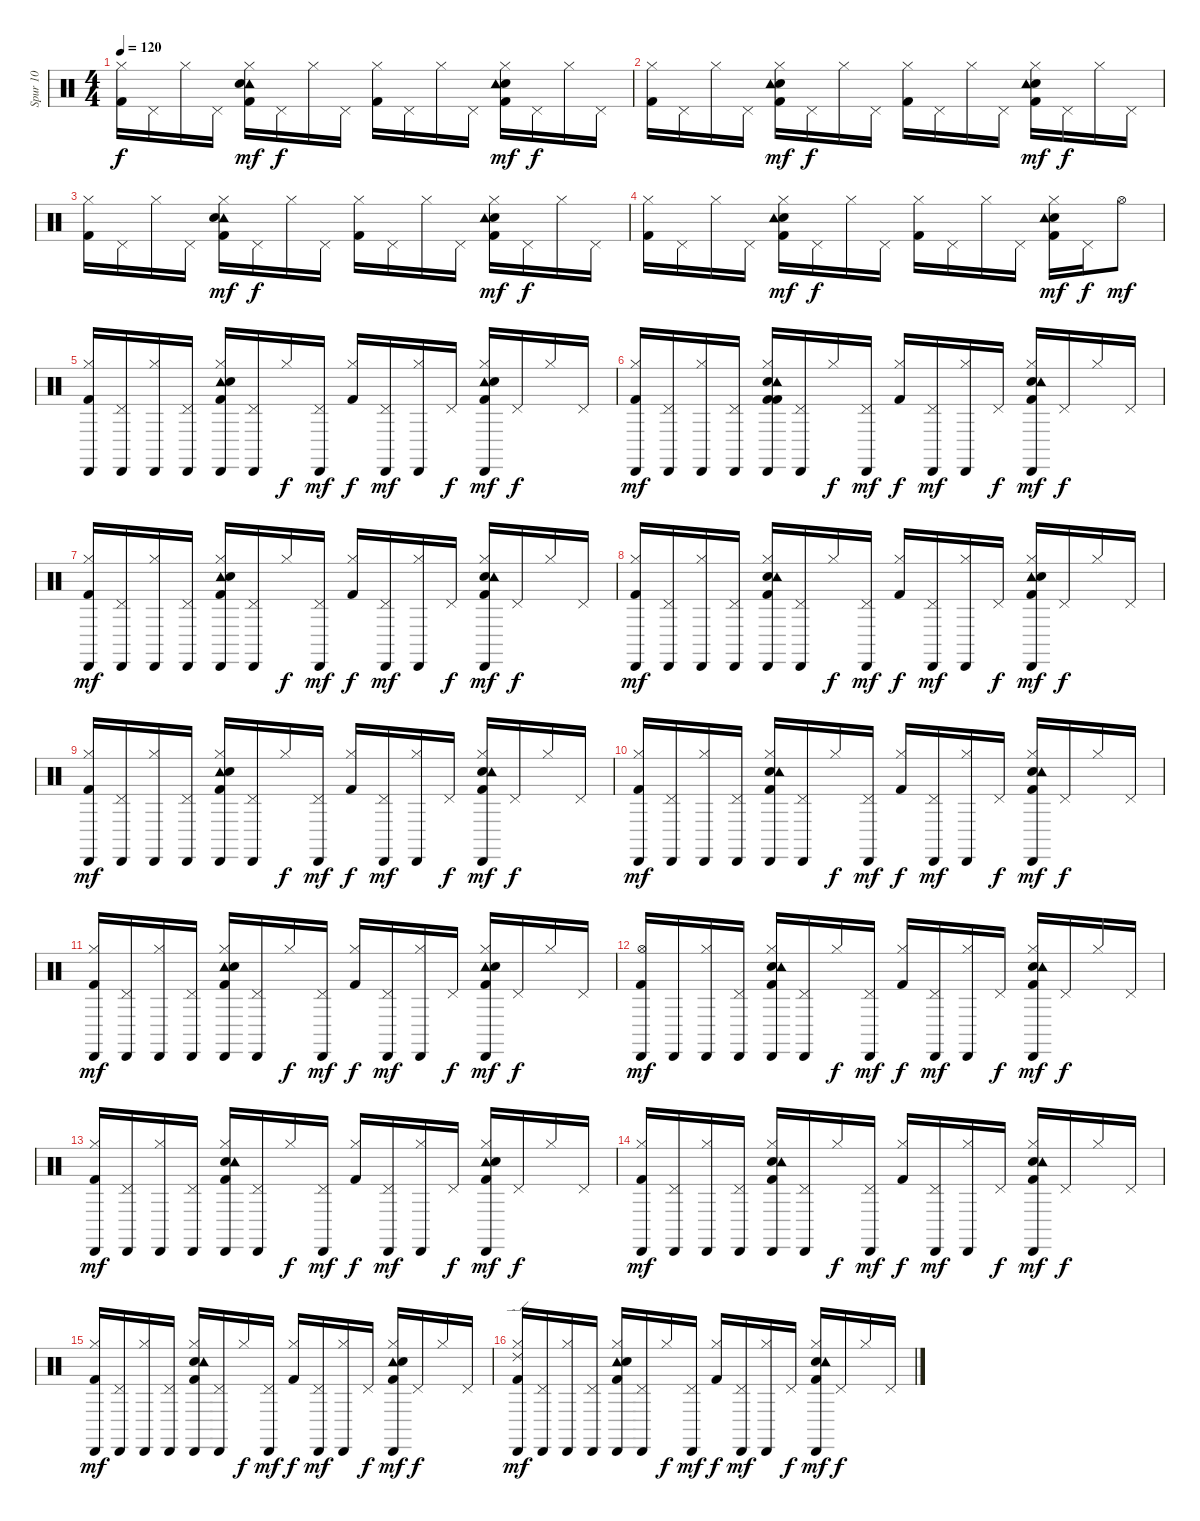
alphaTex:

\track ("Spur 10" "Spur 10") {instrument percussion}
\staff {score}
\articulation defaults
\ts (4 4)
\tempo 120
\clef neutral
\ks c
("Kick (hit) 2" "Hi-Hat (closed)").16{dy f} "Pedal Hi-Hat (hit)".16 "Hi-Hat (closed)".16 "Pedal Hi-Hat (hit)".16 ("Tambourine (hit)" "Snare (hit) 2" "Kick (hit) 2" "Hi-Hat (closed)").16{dy mf} "Pedal Hi-Hat (hit)".16{dy f} "Hi-Hat (closed)".16 "Pedal Hi-Hat (hit)".16 ("Kick (hit) 2" "Hi-Hat (closed)").16 "Pedal Hi-Hat (hit)".16 "Hi-Hat (closed)".16 "Pedal Hi-Hat (hit)".16 ("Kick (hit) 2" "Snare (hit) 2" "Tambourine (hit)" "Hi-Hat (closed)").16{dy mf} "Pedal Hi-Hat (hit)".16{dy f} "Hi-Hat (closed)".16 "Pedal Hi-Hat (hit)".16 |
("Kick (hit) 2" "Hi-Hat (closed)").16 "Pedal Hi-Hat (hit)".16 "Hi-Hat (closed)".16 "Pedal Hi-Hat (hit)".16 ("Snare (hit) 2" "Kick (hit) 2" "Tambourine (hit)" "Hi-Hat (closed)").16{dy mf} "Pedal Hi-Hat (hit)".16{dy f} "Hi-Hat (closed)".16 "Pedal Hi-Hat (hit)".16 ("Kick (hit) 2" "Hi-Hat (closed)").16 "Pedal Hi-Hat (hit)".16 "Hi-Hat (closed)".16 "Pedal Hi-Hat (hit)".16 ("Kick (hit) 2" "Snare (hit) 2" "Tambourine (hit)" "Hi-Hat (closed)").16{dy mf} "Pedal Hi-Hat (hit)".16{dy f} "Hi-Hat (closed)".16 "Pedal Hi-Hat (hit)".16 |
("Kick (hit) 2" "Hi-Hat (closed)").16 "Pedal Hi-Hat (hit)".16 "Hi-Hat (closed)".16 "Pedal Hi-Hat (hit)".16 ("Tambourine (hit)" "Snare (hit) 2" "Kick (hit) 2" "Hi-Hat (closed)").16{dy mf} "Pedal Hi-Hat (hit)".16{dy f} "Hi-Hat (closed)".16 "Pedal Hi-Hat (hit)".16 ("Kick (hit) 2" "Hi-Hat (closed)").16 "Pedal Hi-Hat (hit)".16 "Hi-Hat (closed)".16 "Pedal Hi-Hat (hit)".16 ("Snare (hit) 2" "Tambourine (hit)" "Kick (hit) 2" "Hi-Hat (closed)").16{dy mf} "Pedal Hi-Hat (hit)".16{dy f} "Hi-Hat (closed)".16 "Pedal Hi-Hat (hit)".16 |
("Kick (hit) 2" "Hi-Hat (closed)").16 "Pedal Hi-Hat (hit)".16 "Hi-Hat (closed)".16 "Pedal Hi-Hat (hit)".16 ("Snare (hit) 2" "Kick (hit) 2" "Tambourine (hit)" "Hi-Hat (closed)").16{dy mf} "Pedal Hi-Hat (hit)".16{dy f} "Hi-Hat (closed)".16 "Pedal Hi-Hat (hit)".16 ("Kick (hit) 2" "Hi-Hat (closed)").16 "Pedal Hi-Hat (hit)".16 "Hi-Hat (closed)".16 "Pedal Hi-Hat (hit)".16 ("Snare (hit) 2" "Tambourine (hit)" "Kick (hit) 2" "Hi-Hat (closed)").16{dy mf} "Pedal Hi-Hat (hit)".16{dy f} "Hi-Hat (open)".8{dy mf} |
("Kick (hit) 2" "Hi-Hat (closed)" "Cabasa (hit)").16 ("Pedal Hi-Hat (hit)" "Cabasa (hit)").16 ("Hi-Hat (closed)" "Cabasa (hit)").16 ("Pedal Hi-Hat (hit)" "Cabasa (hit)").16 ("Tambourine (hit)" "Kick (hit) 2" "Snare (hit) 2" "Hi-Hat (closed)" "Cabasa (hit)").16 ("Pedal Hi-Hat (hit)" "Cabasa (hit)").16 "Hi-Hat (closed)".16{dy f} ("Pedal Hi-Hat (hit)" "Cabasa (hit)").16{dy mf} ("Kick (hit) 2" "Hi-Hat (closed)").16{dy f} ("Pedal Hi-Hat (hit)" "Cabasa (hit)").16{dy mf} ("Hi-Hat (closed)" "Cabasa (hit)").16 "Pedal Hi-Hat (hit)".16{dy f} ("Kick (hit) 2" "Tambourine (hit)" "Snare (hit) 2" "Hi-Hat (closed)" "Cabasa (hit)").16{dy mf} "Pedal Hi-Hat (hit)".16{dy f} "Hi-Hat (closed)".16 "Pedal Hi-Hat (hit)".16 |
("Kick (hit) 2" "Hi-Hat (closed)" "Cabasa (hit)").16{dy mf} ("Pedal Hi-Hat (hit)" "Cabasa (hit)").16 ("Hi-Hat (closed)" "Cabasa (hit)").16 ("Pedal Hi-Hat (hit)" "Cabasa (hit)").16 ("Kick (hit) 2" "Snare (hit) 2" "Tambourine (hit)" "Kick (hit) 2" "Hi-Hat (closed)" "Cabasa (hit)").16 ("Pedal Hi-Hat (hit)" "Cabasa (hit)").16 "Hi-Hat (closed)".16{dy f} ("Pedal Hi-Hat (hit)" "Cabasa (hit)").16{dy mf} ("Kick (hit) 2" "Hi-Hat (closed)").16{dy f} ("Pedal Hi-Hat (hit)" "Cabasa (hit)").16{dy mf} ("Hi-Hat (closed)" "Cabasa (hit)").16 "Pedal Hi-Hat (hit)".16{dy f} ("Kick (hit) 2" "Snare (hit) 2" "Tambourine (hit)" "Hi-Hat (closed)" "Cabasa (hit)").16{dy mf} "Pedal Hi-Hat (hit)".16{dy f} "Hi-Hat (closed)".16 "Pedal Hi-Hat (hit)".16 |
("Kick (hit) 2" "Hi-Hat (closed)" "Cabasa (hit)").16{dy mf} ("Pedal Hi-Hat (hit)" "Cabasa (hit)").16 ("Hi-Hat (closed)" "Cabasa (hit)").16 ("Pedal Hi-Hat (hit)" "Cabasa (hit)").16 ("Tambourine (hit)" "Kick (hit) 2" "Snare (hit) 2" "Hi-Hat (closed)" "Cabasa (hit)").16 ("Pedal Hi-Hat (hit)" "Cabasa (hit)").16 "Hi-Hat (closed)".16{dy f} ("Pedal Hi-Hat (hit)" "Cabasa (hit)").16{dy mf} ("Kick (hit) 2" "Hi-Hat (closed)").16{dy f} ("Pedal Hi-Hat (hit)" "Cabasa (hit)").16{dy mf} ("Hi-Hat (closed)" "Cabasa (hit)").16 "Pedal Hi-Hat (hit)".16{dy f} ("Snare (hit) 2" "Kick (hit) 2" "Tambourine (hit)" "Hi-Hat (closed)" "Cabasa (hit)").16{dy mf} "Pedal Hi-Hat (hit)".16{dy f} "Hi-Hat (closed)".16 "Pedal Hi-Hat (hit)".16 |
("Kick (hit) 2" "Hi-Hat (closed)" "Cabasa (hit)").16{dy mf} ("Pedal Hi-Hat (hit)" "Cabasa (hit)").16 ("Hi-Hat (closed)" "Cabasa (hit)").16 ("Pedal Hi-Hat (hit)" "Cabasa (hit)").16 ("Snare (hit) 2" "Tambourine (hit)" "Kick (hit) 2" "Hi-Hat (closed)" "Cabasa (hit)").16 ("Pedal Hi-Hat (hit)" "Cabasa (hit)").16 "Hi-Hat (closed)".16{dy f} ("Pedal Hi-Hat (hit)" "Cabasa (hit)").16{dy mf} ("Kick (hit) 2" "Hi-Hat (closed)").16{dy f} ("Pedal Hi-Hat (hit)" "Cabasa (hit)").16{dy mf} ("Hi-Hat (closed)" "Cabasa (hit)").16 "Pedal Hi-Hat (hit)".16{dy f} ("Tambourine (hit)" "Snare (hit) 2" "Kick (hit) 2" "Hi-Hat (closed)" "Cabasa (hit)").16{dy mf} "Pedal Hi-Hat (hit)".16{dy f} "Hi-Hat (closed)".16 "Pedal Hi-Hat (hit)".16 |
("Kick (hit) 2" "Hi-Hat (closed)" "Cabasa (hit)").16{dy mf} ("Pedal Hi-Hat (hit)" "Cabasa (hit)").16 ("Hi-Hat (closed)" "Cabasa (hit)").16 ("Pedal Hi-Hat (hit)" "Cabasa (hit)").16 ("Tambourine (hit)" "Snare (hit) 2" "Kick (hit) 2" "Hi-Hat (closed)" "Cabasa (hit)").16 ("Pedal Hi-Hat (hit)" "Cabasa (hit)").16 "Hi-Hat (closed)".16{dy f} ("Pedal Hi-Hat (hit)" "Cabasa (hit)").16{dy mf} ("Kick (hit) 2" "Hi-Hat (closed)").16{dy f} ("Pedal Hi-Hat (hit)" "Cabasa (hit)").16{dy mf} ("Hi-Hat (closed)" "Cabasa (hit)").16 "Pedal Hi-Hat (hit)".16{dy f} ("Snare (hit) 2" "Kick (hit) 2" "Tambourine (hit)" "Hi-Hat (closed)" "Cabasa (hit)").16{dy mf} "Pedal Hi-Hat (hit)".16{dy f} "Hi-Hat (closed)".16 "Pedal Hi-Hat (hit)".16 |
("Kick (hit) 2" "Hi-Hat (closed)" "Cabasa (hit)").16{dy mf} ("Pedal Hi-Hat (hit)" "Cabasa (hit)").16 ("Hi-Hat (closed)" "Cabasa (hit)").16 ("Pedal Hi-Hat (hit)" "Cabasa (hit)").16 ("Snare (hit) 2" "Tambourine (hit)" "Kick (hit) 2" "Hi-Hat (closed)" "Cabasa (hit)").16 ("Pedal Hi-Hat (hit)" "Cabasa (hit)").16 "Hi-Hat (closed)".16{dy f} ("Pedal Hi-Hat (hit)" "Cabasa (hit)").16{dy mf} ("Kick (hit) 2" "Hi-Hat (closed)").16{dy f} ("Pedal Hi-Hat (hit)" "Cabasa (hit)").16{dy mf} ("Hi-Hat (closed)" "Cabasa (hit)").16 "Pedal Hi-Hat (hit)".16{dy f} ("Snare (hit) 2" "Kick (hit) 2" "Tambourine (hit)" "Hi-Hat (closed)" "Cabasa (hit)").16{dy mf} "Pedal Hi-Hat (hit)".16{dy f} "Hi-Hat (closed)".16 "Pedal Hi-Hat (hit)".16 |
("Kick (hit) 2" "Hi-Hat (closed)" "Cabasa (hit)").16{dy mf} ("Pedal Hi-Hat (hit)" "Cabasa (hit)").16 ("Hi-Hat (closed)" "Cabasa (hit)").16 ("Pedal Hi-Hat (hit)" "Cabasa (hit)").16 ("Kick (hit) 2" "Tambourine (hit)" "Snare (hit) 2" "Hi-Hat (closed)" "Cabasa (hit)").16 ("Pedal Hi-Hat (hit)" "Cabasa (hit)").16 "Hi-Hat (closed)".16{dy f} ("Pedal Hi-Hat (hit)" "Cabasa (hit)").16{dy mf} ("Kick (hit) 2" "Hi-Hat (closed)").16{dy f} ("Pedal Hi-Hat (hit)" "Cabasa (hit)").16{dy mf} ("Hi-Hat (closed)" "Cabasa (hit)").16 "Pedal Hi-Hat (hit)".16{dy f} ("Tambourine (hit)" "Snare (hit) 2" "Kick (hit) 2" "Hi-Hat (closed)" "Cabasa (hit)").16{dy mf} "Pedal Hi-Hat (hit)".16{dy f} "Hi-Hat (closed)".16 "Pedal Hi-Hat (hit)".16 |
("Kick (hit) 2" "Hi-Hat (open)" "Cabasa (hit)").16{dy mf} "Cabasa (hit)".16 ("Hi-Hat (closed)" "Cabasa (hit)").16 ("Pedal Hi-Hat (hit)" "Cabasa (hit)").16 ("Snare (hit) 2" "Tambourine (hit)" "Kick (hit) 2" "Hi-Hat (closed)" "Cabasa (hit)").16 ("Pedal Hi-Hat (hit)" "Cabasa (hit)").16 "Hi-Hat (closed)".16{dy f} ("Pedal Hi-Hat (hit)" "Cabasa (hit)").16{dy mf} ("Kick (hit) 2" "Hi-Hat (closed)").16{dy f} ("Pedal Hi-Hat (hit)" "Cabasa (hit)").16{dy mf} ("Hi-Hat (closed)" "Cabasa (hit)").16 "Pedal Hi-Hat (hit)".16{dy f} ("Snare (hit) 2" "Kick (hit) 2" "Tambourine (hit)" "Hi-Hat (closed)" "Cabasa (hit)").16{dy mf} "Pedal Hi-Hat (hit)".16{dy f} "Hi-Hat (closed)".16 "Pedal Hi-Hat (hit)".16 |
("Kick (hit) 2" "Hi-Hat (closed)" "Cabasa (hit)").16{dy mf} ("Pedal Hi-Hat (hit)" "Cabasa (hit)").16 ("Hi-Hat (closed)" "Cabasa (hit)").16 ("Pedal Hi-Hat (hit)" "Cabasa (hit)").16 ("Snare (hit) 2" "Tambourine (hit)" "Kick (hit) 2" "Hi-Hat (closed)" "Cabasa (hit)").16 ("Pedal Hi-Hat (hit)" "Cabasa (hit)").16 "Hi-Hat (closed)".16{dy f} ("Pedal Hi-Hat (hit)" "Cabasa (hit)").16{dy mf} ("Kick (hit) 2" "Hi-Hat (closed)").16{dy f} ("Pedal Hi-Hat (hit)" "Cabasa (hit)").16{dy mf} ("Hi-Hat (closed)" "Cabasa (hit)").16 "Pedal Hi-Hat (hit)".16{dy f} ("Tambourine (hit)" "Snare (hit) 2" "Kick (hit) 2" "Hi-Hat (closed)" "Cabasa (hit)").16{dy mf} "Pedal Hi-Hat (hit)".16{dy f} "Hi-Hat (closed)".16 "Pedal Hi-Hat (hit)".16 |
("Kick (hit) 2" "Hi-Hat (closed)" "Cabasa (hit)").16{dy mf} ("Pedal Hi-Hat (hit)" "Cabasa (hit)").16 ("Hi-Hat (closed)" "Cabasa (hit)").16 ("Pedal Hi-Hat (hit)" "Cabasa (hit)").16 ("Kick (hit) 2" "Snare (hit) 2" "Tambourine (hit)" "Hi-Hat (closed)" "Cabasa (hit)").16 ("Pedal Hi-Hat (hit)" "Cabasa (hit)").16 "Hi-Hat (closed)".16{dy f} ("Pedal Hi-Hat (hit)" "Cabasa (hit)").16{dy mf} ("Kick (hit) 2" "Hi-Hat (closed)").16{dy f} ("Pedal Hi-Hat (hit)" "Cabasa (hit)").16{dy mf} ("Hi-Hat (closed)" "Cabasa (hit)").16 "Pedal Hi-Hat (hit)".16{dy f} ("Snare (hit) 2" "Kick (hit) 2" "Tambourine (hit)" "Hi-Hat (closed)" "Cabasa (hit)").16{dy mf} "Pedal Hi-Hat (hit)".16{dy f} "Hi-Hat (closed)".16 "Pedal Hi-Hat (hit)".16 |
("Kick (hit) 2" "Hi-Hat (closed)" "Cabasa (hit)").16{dy mf} ("Pedal Hi-Hat (hit)" "Cabasa (hit)").16 ("Hi-Hat (closed)" "Cabasa (hit)").16 ("Pedal Hi-Hat (hit)" "Cabasa (hit)").16 ("Kick (hit) 2" "Snare (hit) 2" "Tambourine (hit)" "Hi-Hat (closed)" "Cabasa (hit)").16 ("Pedal Hi-Hat (hit)" "Cabasa (hit)").16 "Hi-Hat (closed)".16{dy f} ("Pedal Hi-Hat (hit)" "Cabasa (hit)").16{dy mf} ("Kick (hit) 2" "Hi-Hat (closed)").16{dy f} ("Pedal Hi-Hat (hit)" "Cabasa (hit)").16{dy mf} ("Hi-Hat (closed)" "Cabasa (hit)").16 "Pedal Hi-Hat (hit)".16{dy f} ("Tambourine (hit)" "Snare (hit) 2" "Kick (hit) 2" "Hi-Hat (closed)" "Cabasa (hit)").16{dy mf} "Pedal Hi-Hat (hit)".16{dy f} "Hi-Hat (closed)".16 "Pedal Hi-Hat (hit)".16 |
("Kick (hit) 2" "Ride (edge) 2" "Hi-Hat (closed)" "Cabasa (hit)").16{dy mf} ("Pedal Hi-Hat (hit)" "Cabasa (hit)").16 ("Hi-Hat (closed)" "Cabasa (hit)").16 ("Pedal Hi-Hat (hit)" "Cabasa (hit)").16 ("Kick (hit) 2" "Tambourine (hit)" "Snare (hit) 2" "Hi-Hat (closed)" "Cabasa (hit)").16 ("Pedal Hi-Hat (hit)" "Cabasa (hit)").16 "Hi-Hat (closed)".16{dy f} ("Pedal Hi-Hat (hit)" "Cabasa (hit)").16{dy mf} ("Kick (hit) 2" "Hi-Hat (closed)").16{dy f} ("Pedal Hi-Hat (hit)" "Cabasa (hit)").16{dy mf} ("Hi-Hat (closed)" "Cabasa (hit)").16 "Pedal Hi-Hat (hit)".16{dy f} ("Snare (hit) 2" "Kick (hit) 2" "Tambourine (hit)" "Hi-Hat (closed)" "Cabasa (hit)").16{dy mf} "Pedal Hi-Hat (hit)".16{dy f} "Hi-Hat (closed)".16 "Pedal Hi-Hat (hit)".16
